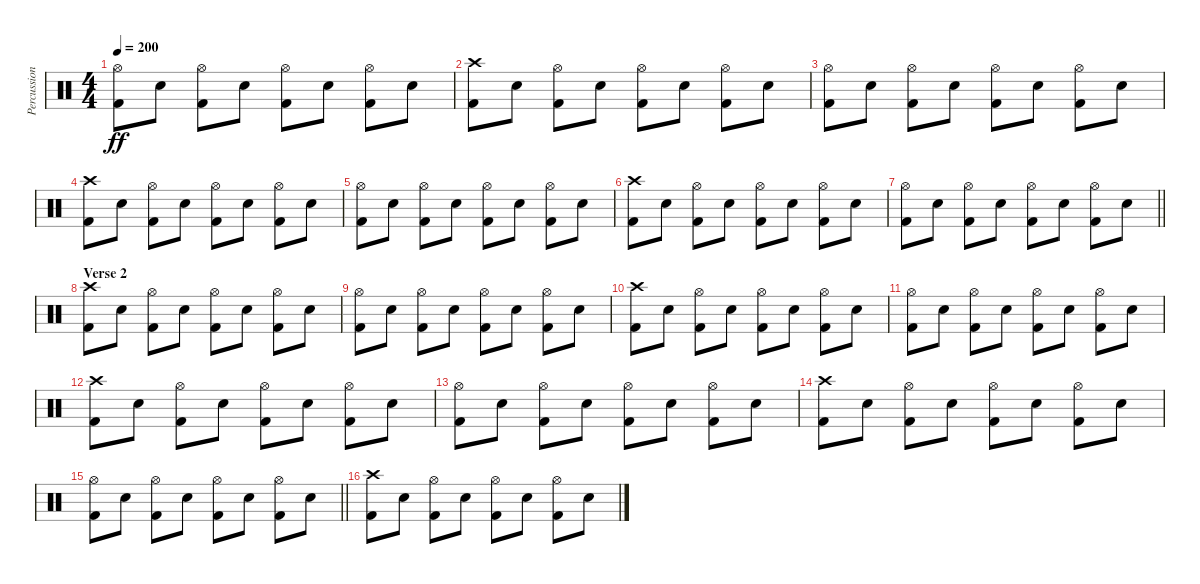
\track ("Percussion" "Percussion") {instrument percussion}
\staff {score}
\articulation defaults
\ts (4 4)
\tempo 200
\clef neutral
\ks c
("Hi-Hat (open)" "Kick (hit) 2").8{dy ff} "Snare (hit) 2".8 ("Hi-Hat (open)" "Kick (hit) 2").8 "Snare (hit) 2".8 ("Hi-Hat (open)" "Kick (hit) 2").8 "Snare (hit) 2".8 ("Hi-Hat (open)" "Kick (hit) 2").8 "Snare (hit) 2".8 |
("Crash high (hit)" "Kick (hit) 2").8 "Snare (hit) 2".8 ("Hi-Hat (open)" "Kick (hit) 2").8 "Snare (hit) 2".8 ("Hi-Hat (open)" "Kick (hit) 2").8 "Snare (hit) 2".8 ("Hi-Hat (open)" "Kick (hit) 2").8 "Snare (hit) 2".8 |
("Hi-Hat (open)" "Kick (hit) 2").8 "Snare (hit) 2".8 ("Hi-Hat (open)" "Kick (hit) 2").8 "Snare (hit) 2".8 ("Hi-Hat (open)" "Kick (hit) 2").8 "Snare (hit) 2".8 ("Hi-Hat (open)" "Kick (hit) 2").8 "Snare (hit) 2".8 |
("Crash high (hit)" "Kick (hit) 2").8 "Snare (hit) 2".8 ("Hi-Hat (open)" "Kick (hit) 2").8 "Snare (hit) 2".8 ("Hi-Hat (open)" "Kick (hit) 2").8 "Snare (hit) 2".8 ("Hi-Hat (open)" "Kick (hit) 2").8 "Snare (hit) 2".8 |
("Hi-Hat (open)" "Kick (hit) 2").8 "Snare (hit) 2".8 ("Hi-Hat (open)" "Kick (hit) 2").8 "Snare (hit) 2".8 ("Hi-Hat (open)" "Kick (hit) 2").8 "Snare (hit) 2".8 ("Hi-Hat (open)" "Kick (hit) 2").8 "Snare (hit) 2".8 |
("Crash high (hit)" "Kick (hit) 2").8 "Snare (hit) 2".8 ("Hi-Hat (open)" "Kick (hit) 2").8 "Snare (hit) 2".8 ("Hi-Hat (open)" "Kick (hit) 2").8 "Snare (hit) 2".8 ("Hi-Hat (open)" "Kick (hit) 2").8 "Snare (hit) 2".8 |
\barLineRight lightlight
("Hi-Hat (open)" "Kick (hit) 2").8 "Snare (hit) 2".8 ("Hi-Hat (open)" "Kick (hit) 2").8 "Snare (hit) 2".8 ("Hi-Hat (open)" "Kick (hit) 2").8 "Snare (hit) 2".8 ("Hi-Hat (open)" "Kick (hit) 2").8 "Snare (hit) 2".8 |
\section ("" "Verse 2")
("Crash high (hit)" "Kick (hit) 2").8 "Snare (hit) 2".8 ("Hi-Hat (open)" "Kick (hit) 2").8 "Snare (hit) 2".8 ("Hi-Hat (open)" "Kick (hit) 2").8 "Snare (hit) 2".8 ("Hi-Hat (open)" "Kick (hit) 2").8 "Snare (hit) 2".8 |
("Hi-Hat (open)" "Kick (hit) 2").8 "Snare (hit) 2".8 ("Hi-Hat (open)" "Kick (hit) 2").8 "Snare (hit) 2".8 ("Hi-Hat (open)" "Kick (hit) 2").8 "Snare (hit) 2".8 ("Hi-Hat (open)" "Kick (hit) 2").8 "Snare (hit) 2".8 |
("Crash high (hit)" "Kick (hit) 2").8 "Snare (hit) 2".8 ("Hi-Hat (open)" "Kick (hit) 2").8 "Snare (hit) 2".8 ("Hi-Hat (open)" "Kick (hit) 2").8 "Snare (hit) 2".8 ("Hi-Hat (open)" "Kick (hit) 2").8 "Snare (hit) 2".8 |
("Hi-Hat (open)" "Kick (hit) 2").8 "Snare (hit) 2".8 ("Hi-Hat (open)" "Kick (hit) 2").8 "Snare (hit) 2".8 ("Hi-Hat (open)" "Kick (hit) 2").8 "Snare (hit) 2".8 ("Hi-Hat (open)" "Kick (hit) 2").8 "Snare (hit) 2".8 |
("Crash high (hit)" "Kick (hit) 2").8 "Snare (hit) 2".8 ("Hi-Hat (open)" "Kick (hit) 2").8 "Snare (hit) 2".8 ("Hi-Hat (open)" "Kick (hit) 2").8 "Snare (hit) 2".8 ("Hi-Hat (open)" "Kick (hit) 2").8 "Snare (hit) 2".8 |
("Hi-Hat (open)" "Kick (hit) 2").8 "Snare (hit) 2".8 ("Hi-Hat (open)" "Kick (hit) 2").8 "Snare (hit) 2".8 ("Hi-Hat (open)" "Kick (hit) 2").8 "Snare (hit) 2".8 ("Hi-Hat (open)" "Kick (hit) 2").8 "Snare (hit) 2".8 |
("Crash high (hit)" "Kick (hit) 2").8 "Snare (hit) 2".8 ("Hi-Hat (open)" "Kick (hit) 2").8 "Snare (hit) 2".8 ("Hi-Hat (open)" "Kick (hit) 2").8 "Snare (hit) 2".8 ("Hi-Hat (open)" "Kick (hit) 2").8 "Snare (hit) 2".8 |
\barLineRight lightlight
("Hi-Hat (open)" "Kick (hit) 2").8 "Snare (hit) 2".8 ("Hi-Hat (open)" "Kick (hit) 2").8 "Snare (hit) 2".8 ("Hi-Hat (open)" "Kick (hit) 2").8 "Snare (hit) 2".8 ("Hi-Hat (open)" "Kick (hit) 2").8 "Snare (hit) 2".8 |
("Crash high (hit)" "Kick (hit) 2").8 "Snare (hit) 2".8 ("Hi-Hat (open)" "Kick (hit) 2").8 "Snare (hit) 2".8 ("Hi-Hat (open)" "Kick (hit) 2").8 "Snare (hit) 2".8 ("Hi-Hat (open)" "Kick (hit) 2").8 "Snare (hit) 2".8
